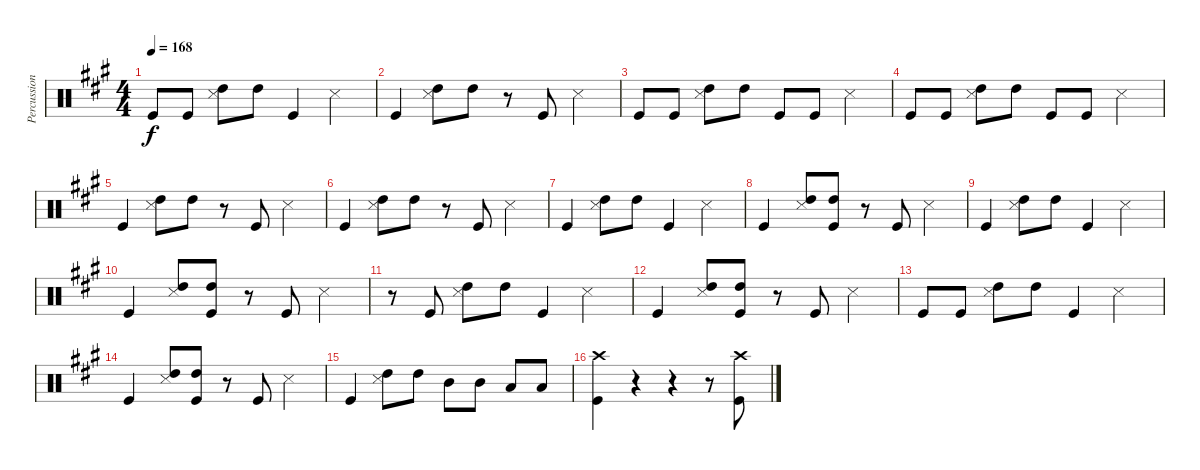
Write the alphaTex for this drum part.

\track ("Percussion" "Percussion") {instrument percussion}
\staff {score}
\articulation defaults
\ts (4 4)
\tempo 168
\clef neutral
\ks a "Kick (hit)".8{dy f} "Kick (hit)".8
("High Tom (hit)" "Snare (side stick) 3").8 "High Tom (hit)".8 "Kick (hit)".4 "Snare (side stick) 3".4 |
"Kick (hit)".4 ("High Tom (hit)" "Snare (side stick) 3").8 "High Tom (hit)".8 r.8 "Kick (hit)".8 "Snare (side stick) 3".4 |
"Kick (hit)".8 "Kick (hit)".8 ("High Tom (hit)" "Snare (side stick) 3").8 "High Tom (hit)".8 "Kick (hit)".8 "Kick (hit)".8 "Snare (side stick) 3".4 |
"Kick (hit)".8 "Kick (hit)".8 ("High Tom (hit)" "Snare (side stick) 3").8 "High Tom (hit)".8 "Kick (hit)".8 "Kick (hit)".8 "Snare (side stick) 3".4 |
"Kick (hit)".4 ("High Tom (hit)" "Snare (side stick) 3").8 "High Tom (hit)".8 r.8 "Kick (hit)".8 "Snare (side stick) 3".4 |
"Kick (hit)".4 ("High Tom (hit)" "Snare (side stick) 3").8 "High Tom (hit)".8 r.8 "Kick (hit)".8 "Snare (side stick) 3".4 |
"Kick (hit)".4 ("High Tom (hit)" "Snare (side stick) 3").8 "High Tom (hit)".8 "Kick (hit)".4 "Snare (side stick) 3".4 |
"Kick (hit)".4 ("High Tom (hit)" "Snare (side stick) 3").8 ("High Tom (hit)" "Kick (hit)").8 r.8 "Kick (hit)".8 "Snare (side stick) 3".4 |
"Kick (hit)".4 ("High Tom (hit)" "Snare (side stick) 3").8 "High Tom (hit)".8 "Kick (hit)".4 "Snare (side stick) 3".4 |
"Kick (hit)".4 ("High Tom (hit)" "Snare (side stick) 3").8 ("High Tom (hit)" "Kick (hit)").8 r.8 "Kick (hit)".8 "Snare (side stick) 3".4 |
r.8 "Kick (hit)".8 ("High Tom (hit)" "Snare (side stick) 3").8 "High Tom (hit)".8 "Kick (hit)".4 "Snare (side stick) 3".4 |
"Kick (hit)".4 ("High Tom (hit)" "Snare (side stick) 3").8 ("High Tom (hit)" "Kick (hit)").8 r.8 "Kick (hit)".8 "Snare (side stick) 3".4 |
"Kick (hit)".8 "Kick (hit)".8 ("High Tom (hit)" "Snare (side stick) 3").8 "High Tom (hit)".8 "Kick (hit)".4 "Snare (side stick) 3".4 |
"Kick (hit)".4 ("High Tom (hit)" "Snare (side stick) 3").8 ("High Tom (hit)" "Kick (hit)").8 r.8 "Kick (hit)".8 "Snare (side stick) 3".4 |
"Kick (hit)".4 ("High Tom (hit)" "Snare (side stick) 3").8 "High Tom (hit)".8 "Mid Tom (hit)".8 "Mid Tom (hit)".8 "Low Tom (hit)".8 "Low Tom (hit)".8 |
("Crash high (hit)" "Kick (hit)").4 r.4 r.4 r.8 ("Crash high (hit)" "Kick (hit)").8
